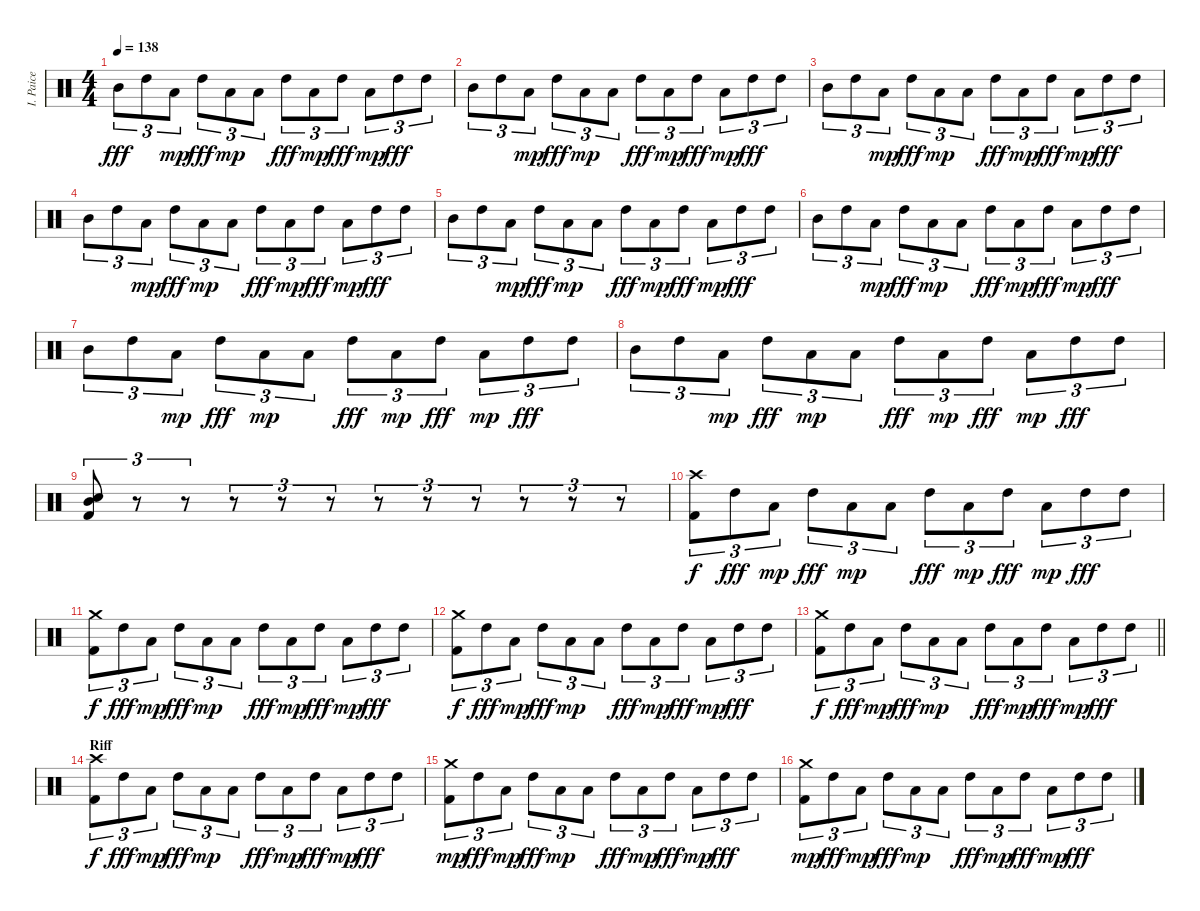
\track ("I. Paice" "I. Paice") {instrument percussion}
\staff {score}
\articulation defaults
\ts (4 4)
\tempo 138
\clef neutral
\ks c "Mid Tom (hit)".8{tu (3 2) dy fff} "High Tom (hit)".8{tu (3 2)} "Low Tom (hit)".8{tu (3 2) dy mp} "High Tom (hit)".8{tu (3 2) dy fff} "Low Tom (hit)".8{tu (3 2) dy mp} "Low Tom (hit)".8{tu (3 2)} "High Tom (hit)".8{tu (3 2) dy fff} "Low Tom (hit)".8{tu (3 2) dy mp} "High Tom (hit)".8{tu (3 2) dy fff} "Low Tom (hit)".8{tu (3 2) dy mp} "High Tom (hit)".8{tu (3 2) dy fff} "High Tom (hit)".8{tu (3 2)}
|
"Mid Tom (hit)".8{tu (3 2)} "High Tom (hit)".8{tu (3 2)} "Low Tom (hit)".8{tu (3 2) dy mp} "High Tom (hit)".8{tu (3 2) dy fff} "Low Tom (hit)".8{tu (3 2) dy mp} "Low Tom (hit)".8{tu (3 2)} "High Tom (hit)".8{tu (3 2) dy fff} "Low Tom (hit)".8{tu (3 2) dy mp} "High Tom (hit)".8{tu (3 2) dy fff} "Low Tom (hit)".8{tu (3 2) dy mp} "High Tom (hit)".8{tu (3 2) dy fff} "High Tom (hit)".8{tu (3 2)} |
"Mid Tom (hit)".8{tu (3 2)} "High Tom (hit)".8{tu (3 2)} "Low Tom (hit)".8{tu (3 2) dy mp} "High Tom (hit)".8{tu (3 2) dy fff} "Low Tom (hit)".8{tu (3 2) dy mp} "Low Tom (hit)".8{tu (3 2)} "High Tom (hit)".8{tu (3 2) dy fff} "Low Tom (hit)".8{tu (3 2) dy mp} "High Tom (hit)".8{tu (3 2) dy fff} "Low Tom (hit)".8{tu (3 2) dy mp} "High Tom (hit)".8{tu (3 2) dy fff} "High Tom (hit)".8{tu (3 2)} |
"Mid Tom (hit)".8{tu (3 2)} "High Tom (hit)".8{tu (3 2)} "Low Tom (hit)".8{tu (3 2) dy mp} "High Tom (hit)".8{tu (3 2) dy fff} "Low Tom (hit)".8{tu (3 2) dy mp} "Low Tom (hit)".8{tu (3 2)} "High Tom (hit)".8{tu (3 2) dy fff} "Low Tom (hit)".8{tu (3 2) dy mp} "High Tom (hit)".8{tu (3 2) dy fff} "Low Tom (hit)".8{tu (3 2) dy mp} "High Tom (hit)".8{tu (3 2) dy fff} "High Tom (hit)".8{tu (3 2)} |
"Mid Tom (hit)".8{tu (3 2)} "High Tom (hit)".8{tu (3 2)} "Low Tom (hit)".8{tu (3 2) dy mp} "High Tom (hit)".8{tu (3 2) dy fff} "Low Tom (hit)".8{tu (3 2) dy mp} "Low Tom (hit)".8{tu (3 2)} "High Tom (hit)".8{tu (3 2) dy fff} "Low Tom (hit)".8{tu (3 2) dy mp} "High Tom (hit)".8{tu (3 2) dy fff} "Low Tom (hit)".8{tu (3 2) dy mp} "High Tom (hit)".8{tu (3 2) dy fff} "High Tom (hit)".8{tu (3 2)} |
"Mid Tom (hit)".8{tu (3 2)} "High Tom (hit)".8{tu (3 2)} "Low Tom (hit)".8{tu (3 2) dy mp} "High Tom (hit)".8{tu (3 2) dy fff} "Low Tom (hit)".8{tu (3 2) dy mp} "Low Tom (hit)".8{tu (3 2)} "High Tom (hit)".8{tu (3 2) dy fff} "Low Tom (hit)".8{tu (3 2) dy mp} "High Tom (hit)".8{tu (3 2) dy fff} "Low Tom (hit)".8{tu (3 2) dy mp} "High Tom (hit)".8{tu (3 2) dy fff} "High Tom (hit)".8{tu (3 2)} |
"Mid Tom (hit)".8{tu (3 2)} "High Tom (hit)".8{tu (3 2)} "Low Tom (hit)".8{tu (3 2) dy mp} "High Tom (hit)".8{tu (3 2) dy fff} "Low Tom (hit)".8{tu (3 2) dy mp} "Low Tom (hit)".8{tu (3 2)} "High Tom (hit)".8{tu (3 2) dy fff} "Low Tom (hit)".8{tu (3 2) dy mp} "High Tom (hit)".8{tu (3 2) dy fff} "Low Tom (hit)".8{tu (3 2) dy mp} "High Tom (hit)".8{tu (3 2) dy fff} "High Tom (hit)".8{tu (3 2)} |
"Mid Tom (hit)".8{tu (3 2)} "High Tom (hit)".8{tu (3 2)} "Low Tom (hit)".8{tu (3 2) dy mp} "High Tom (hit)".8{tu (3 2) dy fff} "Low Tom (hit)".8{tu (3 2) dy mp} "Low Tom (hit)".8{tu (3 2)} "High Tom (hit)".8{tu (3 2) dy fff} "Low Tom (hit)".8{tu (3 2) dy mp} "High Tom (hit)".8{tu (3 2) dy fff} "Low Tom (hit)".8{tu (3 2) dy mp} "High Tom (hit)".8{tu (3 2) dy fff} "High Tom (hit)".8{tu (3 2)} |
("Mid Tom (hit)" "Snare (hit) 2" "Kick (hit) 2").8{tu (3 2)} r.8{tu (3 2)} r.8{tu (3 2)} r.8{tu (3 2)} r.8{tu (3 2)} r.8{tu (3 2)} r.8{tu (3 2)} r.8{tu (3 2)} r.8{tu (3 2)} r.8{tu (3 2)} r.8{tu (3 2)} r.8{tu (3 2)} |
("Crash high (hit)" "Kick (hit) 2").8{tu (3 2) dy f} "High Tom (hit)".8{tu (3 2) dy fff} "Low Tom (hit)".8{tu (3 2) dy mp} "High Tom (hit)".8{tu (3 2) dy fff} "Low Tom (hit)".8{tu (3 2) dy mp} "Low Tom (hit)".8{tu (3 2)} "High Tom (hit)".8{tu (3 2) dy fff} "Low Tom (hit)".8{tu (3 2) dy mp} "High Tom (hit)".8{tu (3 2) dy fff} "Low Tom (hit)".8{tu (3 2) dy mp} "High Tom (hit)".8{tu (3 2) dy fff} "High Tom (hit)".8{tu (3 2)} |
("Crash medium (hit)" "Kick (hit) 2").8{tu (3 2) dy f} "High Tom (hit)".8{tu (3 2) dy fff} "Low Tom (hit)".8{tu (3 2) dy mp} "High Tom (hit)".8{tu (3 2) dy fff} "Low Tom (hit)".8{tu (3 2) dy mp} "Low Tom (hit)".8{tu (3 2)} "High Tom (hit)".8{tu (3 2) dy fff} "Low Tom (hit)".8{tu (3 2) dy mp} "High Tom (hit)".8{tu (3 2) dy fff} "Low Tom (hit)".8{tu (3 2) dy mp} "High Tom (hit)".8{tu (3 2) dy fff} "High Tom (hit)".8{tu (3 2)} |
("Crash medium (hit)" "Kick (hit) 2").8{tu (3 2) dy f} "High Tom (hit)".8{tu (3 2) dy fff} "Low Tom (hit)".8{tu (3 2) dy mp} "High Tom (hit)".8{tu (3 2) dy fff} "Low Tom (hit)".8{tu (3 2) dy mp} "Low Tom (hit)".8{tu (3 2)} "High Tom (hit)".8{tu (3 2) dy fff} "Low Tom (hit)".8{tu (3 2) dy mp} "High Tom (hit)".8{tu (3 2) dy fff} "Low Tom (hit)".8{tu (3 2) dy mp} "High Tom (hit)".8{tu (3 2) dy fff} "High Tom (hit)".8{tu (3 2)} |
\barLineRight lightlight
("Crash medium (hit)" "Kick (hit) 2").8{tu (3 2) dy f} "High Tom (hit)".8{tu (3 2) dy fff} "Low Tom (hit)".8{tu (3 2) dy mp} "High Tom (hit)".8{tu (3 2) dy fff} "Low Tom (hit)".8{tu (3 2) dy mp} "Low Tom (hit)".8{tu (3 2)} "High Tom (hit)".8{tu (3 2) dy fff} "Low Tom (hit)".8{tu (3 2) dy mp} "High Tom (hit)".8{tu (3 2) dy fff} "Low Tom (hit)".8{tu (3 2) dy mp} "High Tom (hit)".8{tu (3 2) dy fff} "High Tom (hit)".8{tu (3 2)} |
\section ("" "Riff")
("Crash high (hit)" "Kick (hit) 2").8{tu (3 2) dy f} "High Tom (hit)".8{tu (3 2) dy fff} "Low Tom (hit)".8{tu (3 2) dy mp} "High Tom (hit)".8{tu (3 2) dy fff} "Low Tom (hit)".8{tu (3 2) dy mp} "Low Tom (hit)".8{tu (3 2)} "High Tom (hit)".8{tu (3 2) dy fff} "Low Tom (hit)".8{tu (3 2) dy mp} "High Tom (hit)".8{tu (3 2) dy fff} "Low Tom (hit)".8{tu (3 2) dy mp} "High Tom (hit)".8{tu (3 2) dy fff} "High Tom (hit)".8{tu (3 2)} |
("Crash medium (hit)" "Kick (hit) 2").8{tu (3 2) dy mp} "High Tom (hit)".8{tu (3 2) dy fff} "Low Tom (hit)".8{tu (3 2) dy mp} "High Tom (hit)".8{tu (3 2) dy fff} "Low Tom (hit)".8{tu (3 2) dy mp} "Low Tom (hit)".8{tu (3 2)} "High Tom (hit)".8{tu (3 2) dy fff} "Low Tom (hit)".8{tu (3 2) dy mp} "High Tom (hit)".8{tu (3 2) dy fff} "Low Tom (hit)".8{tu (3 2) dy mp} "High Tom (hit)".8{tu (3 2) dy fff} "High Tom (hit)".8{tu (3 2)} |
("Crash medium (hit)" "Kick (hit) 2").8{tu (3 2) dy mp} "High Tom (hit)".8{tu (3 2) dy fff} "Low Tom (hit)".8{tu (3 2) dy mp} "High Tom (hit)".8{tu (3 2) dy fff} "Low Tom (hit)".8{tu (3 2) dy mp} "Low Tom (hit)".8{tu (3 2)} "High Tom (hit)".8{tu (3 2) dy fff} "Low Tom (hit)".8{tu (3 2) dy mp} "High Tom (hit)".8{tu (3 2) dy fff} "Low Tom (hit)".8{tu (3 2) dy mp} "High Tom (hit)".8{tu (3 2) dy fff} "High Tom (hit)".8{tu (3 2)}
